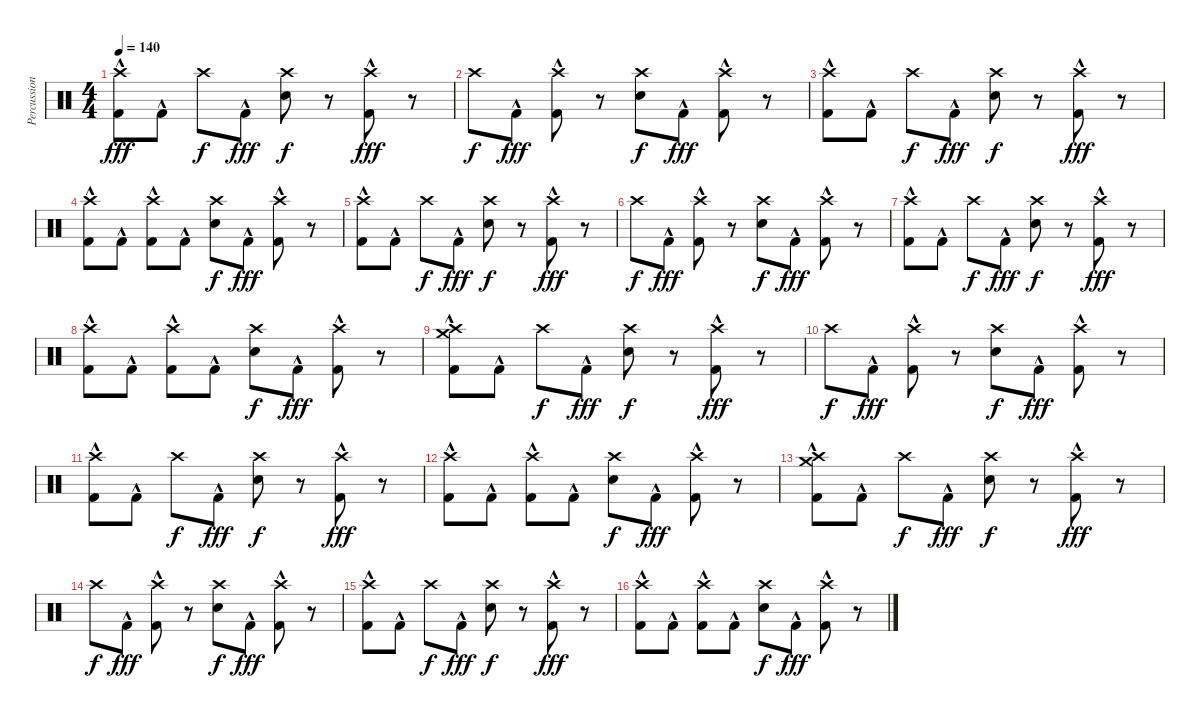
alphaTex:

\track ("Percussion" "Percussion") {instrument percussion}
\staff {score}
\articulation defaults
\ts (4 4)
\tempo 140
\clef neutral
\ks c
("Crash high (hit)" "Kick (hit) 2"{hac}).8{dy fff} "Kick (hit) 2"{hac}.8 "Crash high (hit)".8{dy f} "Kick (hit) 2"{hac}.8{dy fff} ("Crash high (hit)" "Electric Snare (hit)").8{dy f} r.8 ("Crash high (hit)" "Kick (hit) 2"{hac}).8{dy fff} r.8 |
"Crash high (hit)".8{dy f} "Kick (hit) 2"{hac}.8{dy fff} ("Crash high (hit)" "Kick (hit) 2"{hac}).8 r.8 ("Crash high (hit)" "Electric Snare (hit)").8{dy f} "Kick (hit) 2"{hac}.8{dy fff} ("Crash high (hit)" "Kick (hit) 2"{hac}).8 r.8 |
("Crash high (hit)" "Kick (hit) 2"{hac}).8 "Kick (hit) 2"{hac}.8 "Crash high (hit)".8{dy f} "Kick (hit) 2"{hac}.8{dy fff} ("Crash high (hit)" "Electric Snare (hit)").8{dy f} r.8 ("Crash high (hit)" "Kick (hit) 2"{hac}).8{dy fff} r.8 |
("Crash high (hit)" "Kick (hit) 2"{hac}).8 "Kick (hit) 2"{hac}.8 ("Crash high (hit)" "Kick (hit) 2"{hac}).8 "Kick (hit) 2"{hac}.8 ("Crash high (hit)" "Electric Snare (hit)").8{dy f} "Kick (hit) 2"{hac}.8{dy fff} ("Crash high (hit)" "Kick (hit) 2"{hac}).8 r.8 |
("Crash high (hit)" "Kick (hit) 2"{hac}).8 "Kick (hit) 2"{hac}.8 "Crash high (hit)".8{dy f} "Kick (hit) 2"{hac}.8{dy fff} ("Crash high (hit)" "Electric Snare (hit)").8{dy f} r.8 ("Crash high (hit)" "Kick (hit) 2"{hac}).8{dy fff} r.8 |
"Crash high (hit)".8{dy f} "Kick (hit) 2"{hac}.8{dy fff} ("Crash high (hit)" "Kick (hit) 2"{hac}).8 r.8 ("Crash high (hit)" "Electric Snare (hit)").8{dy f} "Kick (hit) 2"{hac}.8{dy fff} ("Crash high (hit)" "Kick (hit) 2"{hac}).8 r.8 |
("Crash high (hit)" "Kick (hit) 2"{hac}).8 "Kick (hit) 2"{hac}.8 "Crash high (hit)".8{dy f} "Kick (hit) 2"{hac}.8{dy fff} ("Crash high (hit)" "Electric Snare (hit)").8{dy f} r.8 ("Crash high (hit)" "Kick (hit) 2"{hac}).8{dy fff} r.8 |
("Crash high (hit)" "Kick (hit) 2"{hac}).8 "Kick (hit) 2"{hac}.8 ("Crash high (hit)" "Kick (hit) 2"{hac}).8 "Kick (hit) 2"{hac}.8 ("Crash high (hit)" "Electric Snare (hit)").8{dy f} "Kick (hit) 2"{hac}.8{dy fff} ("Crash high (hit)" "Kick (hit) 2"{hac}).8 r.8 |
("Crash medium (hit)" "Crash high (hit)" "Kick (hit) 2"{hac}).8 "Kick (hit) 2"{hac}.8 "Crash high (hit)".8{dy f} "Kick (hit) 2"{hac}.8{dy fff} ("Crash high (hit)" "Electric Snare (hit)").8{dy f} r.8 ("Crash high (hit)" "Kick (hit) 2"{hac}).8{dy fff} r.8 |
"Crash high (hit)".8{dy f} "Kick (hit) 2"{hac}.8{dy fff} ("Crash high (hit)" "Kick (hit) 2"{hac}).8 r.8 ("Crash high (hit)" "Electric Snare (hit)").8{dy f} "Kick (hit) 2"{hac}.8{dy fff} ("Crash high (hit)" "Kick (hit) 2"{hac}).8 r.8 |
("Crash high (hit)" "Kick (hit) 2"{hac}).8 "Kick (hit) 2"{hac}.8 "Crash high (hit)".8{dy f} "Kick (hit) 2"{hac}.8{dy fff} ("Crash high (hit)" "Electric Snare (hit)").8{dy f} r.8 ("Crash high (hit)" "Kick (hit) 2"{hac}).8{dy fff} r.8 |
("Crash high (hit)" "Kick (hit) 2"{hac}).8 "Kick (hit) 2"{hac}.8 ("Crash high (hit)" "Kick (hit) 2"{hac}).8 "Kick (hit) 2"{hac}.8 ("Crash high (hit)" "Electric Snare (hit)").8{dy f} "Kick (hit) 2"{hac}.8{dy fff} ("Crash high (hit)" "Kick (hit) 2"{hac}).8 r.8 |
("Crash medium (hit)" "Crash high (hit)" "Kick (hit) 2"{hac}).8 "Kick (hit) 2"{hac}.8 "Crash high (hit)".8{dy f} "Kick (hit) 2"{hac}.8{dy fff} ("Crash high (hit)" "Electric Snare (hit)").8{dy f} r.8 ("Crash high (hit)" "Kick (hit) 2"{hac}).8{dy fff} r.8 |
"Crash high (hit)".8{dy f} "Kick (hit) 2"{hac}.8{dy fff} ("Crash high (hit)" "Kick (hit) 2"{hac}).8 r.8 ("Crash high (hit)" "Electric Snare (hit)").8{dy f} "Kick (hit) 2"{hac}.8{dy fff} ("Crash high (hit)" "Kick (hit) 2"{hac}).8 r.8 |
("Crash high (hit)" "Kick (hit) 2"{hac}).8 "Kick (hit) 2"{hac}.8 "Crash high (hit)".8{dy f} "Kick (hit) 2"{hac}.8{dy fff} ("Crash high (hit)" "Electric Snare (hit)").8{dy f} r.8 ("Crash high (hit)" "Kick (hit) 2"{hac}).8{dy fff} r.8 |
("Crash high (hit)" "Kick (hit) 2"{hac}).8 "Kick (hit) 2"{hac}.8 ("Crash high (hit)" "Kick (hit) 2"{hac}).8 "Kick (hit) 2"{hac}.8 ("Crash high (hit)" "Electric Snare (hit)").8{dy f} "Kick (hit) 2"{hac}.8{dy fff} ("Crash high (hit)" "Kick (hit) 2"{hac}).8 r.8
